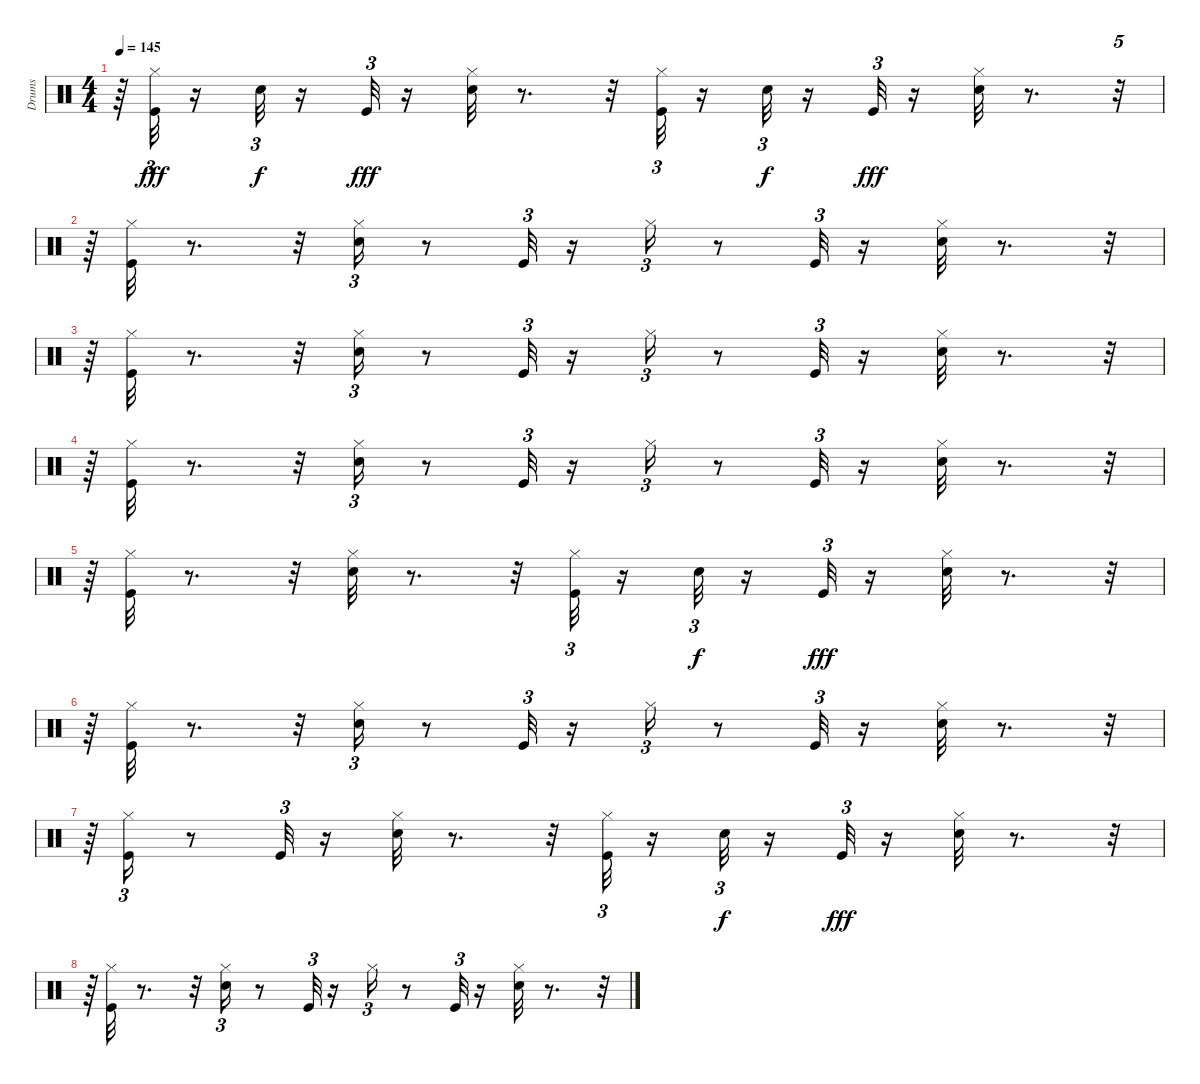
\track ("Drums" "Drums") {instrument percussion}
\staff {score}
\articulation defaults
\ts (4 4)
\tempo 145
\clef neutral
\ks c
r.64{dy fff} ("Kick (hit)" "Hi-Hat (closed)").32{tu (3 2)} r.16 "Electric Snare (hit)".32{tu (3 2) dy f} r.16 "Kick (hit)".32{tu (3 2) dy fff} r.16 ("Electric Snare (hit)" "Hi-Hat (closed)").32 r.8{d} r.32 ("Kick (hit)" "Hi-Hat (closed)").32{tu (3 2)} r.16 "Electric Snare (hit)".32{tu (3 2) dy f} r.16 "Kick (hit)".32{tu (3 2) dy fff} r.16 ("Electric Snare (hit)" "Hi-Hat (closed)").32 r.8{d} r.32{tu (5 4)} |
r.64 ("Kick (hit)" "Hi-Hat (closed)").32 r.8{d} r.32 ("Electric Snare (hit)" "Hi-Hat (closed)").16{tu (3 2)} r.8 "Kick (hit)".32{tu (3 2)} r.16 "Hi-Hat (closed)".16{tu (3 2)} r.8 "Kick (hit)".32{tu (3 2)} r.16 ("Electric Snare (hit)" "Hi-Hat (closed)").32 r.8{d} r.32{tu (5 4)} |
r.64 ("Kick (hit)" "Hi-Hat (closed)").32 r.8{d} r.32 ("Electric Snare (hit)" "Hi-Hat (closed)").16{tu (3 2)} r.8 "Kick (hit)".32{tu (3 2)} r.16 "Hi-Hat (closed)".16{tu (3 2)} r.8 "Kick (hit)".32{tu (3 2)} r.16 ("Electric Snare (hit)" "Hi-Hat (closed)").32 r.8{d} r.32{tu (5 4)} |
r.64 ("Kick (hit)" "Hi-Hat (closed)").32 r.8{d} r.32 ("Electric Snare (hit)" "Hi-Hat (closed)").16{tu (3 2)} r.8 "Kick (hit)".32{tu (3 2)} r.16 "Hi-Hat (closed)".16{tu (3 2)} r.8 "Kick (hit)".32{tu (3 2)} r.16 ("Electric Snare (hit)" "Hi-Hat (closed)").32 r.8{d} r.32{tu (5 4)} |
r.64 ("Kick (hit)" "Hi-Hat (closed)").32 r.8{d} r.32 ("Electric Snare (hit)" "Hi-Hat (closed)").32 r.8{d} r.32 ("Kick (hit)" "Hi-Hat (closed)").32{tu (3 2)} r.16 "Electric Snare (hit)".32{tu (3 2) dy f} r.16 "Kick (hit)".32{tu (3 2) dy fff} r.16 ("Electric Snare (hit)" "Hi-Hat (closed)").32 r.8{d} r.32{tu (5 4)} |
r.64 ("Kick (hit)" "Hi-Hat (closed)").32 r.8{d} r.32 ("Electric Snare (hit)" "Hi-Hat (closed)").16{tu (3 2)} r.8 "Kick (hit)".32{tu (3 2)} r.16 "Hi-Hat (closed)".16{tu (3 2)} r.8 "Kick (hit)".32{tu (3 2)} r.16 ("Electric Snare (hit)" "Hi-Hat (closed)").32 r.8{d} r.32{tu (5 4)} |
r.64 ("Kick (hit)" "Hi-Hat (closed)").16{tu (3 2)} r.8 "Kick (hit)".32{tu (3 2)} r.16 ("Electric Snare (hit)" "Hi-Hat (closed)").32 r.8{d} r.32 ("Kick (hit)" "Hi-Hat (closed)").32{tu (3 2)} r.16 "Electric Snare (hit)".32{tu (3 2) dy f} r.16 "Kick (hit)".32{tu (3 2) dy fff} r.16 ("Electric Snare (hit)" "Hi-Hat (closed)").32 r.8{d} r.32{tu (5 4)} |
r.64 ("Kick (hit)" "Hi-Hat (closed)").32 r.8{d} r.32 ("Electric Snare (hit)" "Hi-Hat (closed)").16{tu (3 2)} r.8 "Kick (hit)".32{tu (3 2)} r.16 "Hi-Hat (closed)".16{tu (3 2)} r.8 "Kick (hit)".32{tu (3 2)} r.16 ("Electric Snare (hit)" "Hi-Hat (closed)").32 r.8{d} r.32{tu (5 4)}
